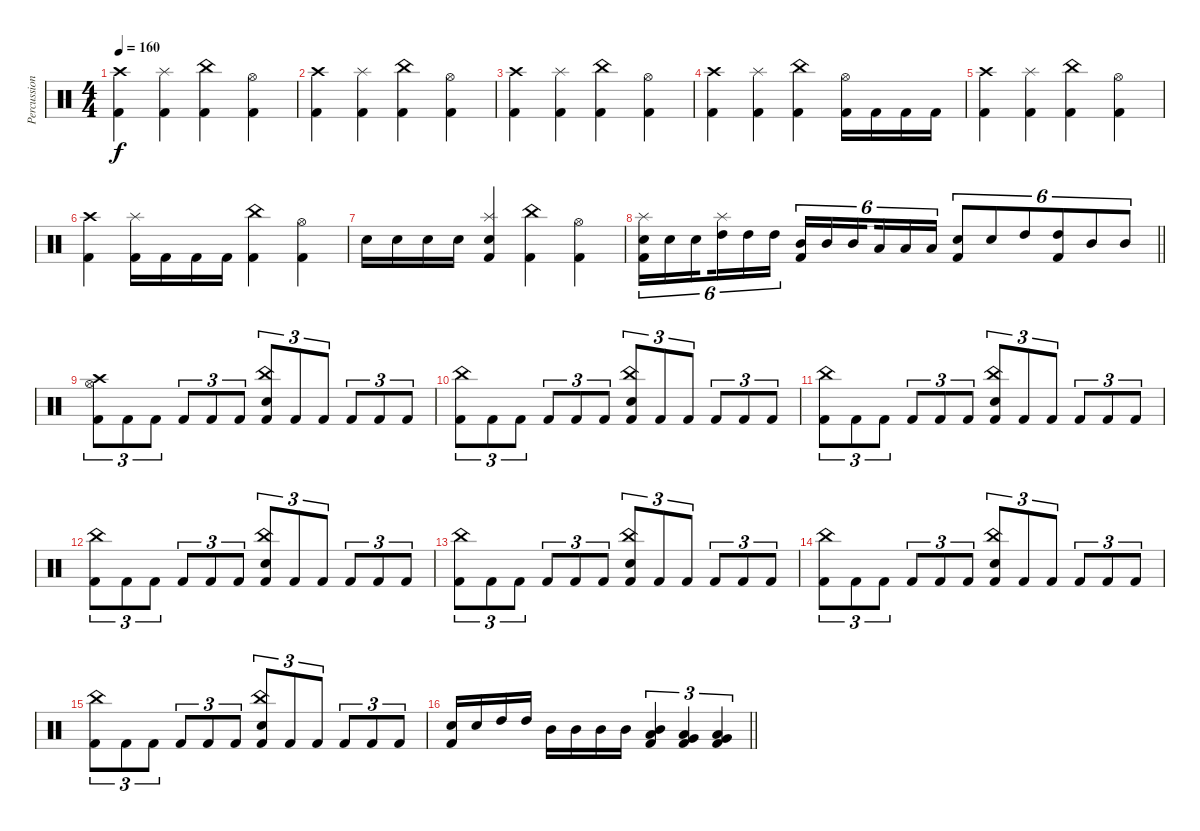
\track ("Percussions" "Percussion") {instrument percussion}
\staff {score}
\articulation defaults
\ts (4 4)
\tempo 160
\clef neutral
\ks c
("Crash high (hit)" "Kick (hit) 2").4{dy f} ("Splash (hit)" "Kick (hit) 2").4 ("China (hit)" "Kick (hit) 2").4 ("Hi-Hat (open)" "Kick (hit) 2").4 |
("Crash high (hit)" "Kick (hit) 2").4 ("Splash (hit)" "Kick (hit) 2").4 ("China (hit)" "Kick (hit) 2").4 ("Hi-Hat (open)" "Kick (hit) 2").4 |
("Crash high (hit)" "Kick (hit) 2").4 ("Splash (hit)" "Kick (hit) 2").4 ("China (hit)" "Kick (hit) 2").4 ("Hi-Hat (open)" "Kick (hit) 2").4 |
("Crash high (hit)" "Kick (hit) 2").4 ("Splash (hit)" "Kick (hit) 2").4 ("China (hit)" "Kick (hit) 2").4 ("Hi-Hat (open)" "Kick (hit) 2").16 "Kick (hit) 2".16 "Kick (hit) 2".16 "Kick (hit) 2".16 |
("Crash high (hit)" "Kick (hit) 2").4 ("Splash (hit)" "Kick (hit) 2").4 ("China (hit)" "Kick (hit) 2").4 ("Hi-Hat (open)" "Kick (hit) 2").4 |
("Crash high (hit)" "Kick (hit) 2").4 ("Splash (hit)" "Kick (hit) 2").16 "Kick (hit) 2".16 "Kick (hit) 2".16 "Kick (hit) 2".16 ("China (hit)" "Kick (hit) 2").4 ("Hi-Hat (open)" "Kick (hit) 2").4 |
"Electric Snare (hit)".16 "Electric Snare (hit)".16 "Electric Snare (hit)".16 "Electric Snare (hit)".16 ("Splash (hit)" "Electric Snare (hit)" "Kick (hit) 2").4 ("China (hit)" "Kick (hit) 2").4 ("Hi-Hat (open)" "Kick (hit) 2").4 |
\barLineRight lightlight
("Splash (hit)" "Electric Snare (hit)" "Kick (hit) 2").16{tu (6 4)} "Electric Snare (hit)".16{tu (6 4)} "Electric Snare (hit)".16{tu (6 4) beam splitsecondary} ("Splash (hit)" "High Tom (hit)").16{tu (6 4)} "High Tom (hit)".16{tu (6 4)} "High Tom (hit)".16{tu (6 4)} ("Mid Tom (hit)" "Kick (hit) 2").16{tu (6 4)} "Mid Tom (hit)".16{tu (6 4)} "Mid Tom (hit)".16{tu (6 4) beam splitsecondary} "Low Tom (hit)".16{tu (6 4)} "Low Tom (hit)".16{tu (6 4)} "Low Tom (hit)".16{tu (6 4)} ("Electric Snare (hit)" "Kick (hit) 2").8{tu (6 4)} "Electric Snare (hit)".8{tu (6 4)} "High Tom (hit)".8{tu (6 4)} ("High Tom (hit)" "Kick (hit) 2").8{tu (6 4)} "Mid Tom (hit)".8{tu (6 4)} "Mid Tom (hit)".8{tu (6 4)} |
("Hi-Hat (open)" "Crash high (hit)" "Kick (hit) 2").8{tu (3 2)} "Kick (hit) 2".8{tu (3 2)} "Kick (hit) 2".8{tu (3 2)} "Kick (hit) 2".8{tu (3 2)} "Kick (hit) 2".8{tu (3 2)} "Kick (hit) 2".8{tu (3 2)} ("China (hit)" "Electric Snare (hit)" "Kick (hit) 2").8{tu (3 2)} "Kick (hit) 2".8{tu (3 2)} "Kick (hit) 2".8{tu (3 2)} "Kick (hit) 2".8{tu (3 2)} "Kick (hit) 2".8{tu (3 2)} "Kick (hit) 2".8{tu (3 2)} |
("China (hit)" "Kick (hit) 2").8{tu (3 2)} "Kick (hit) 2".8{tu (3 2)} "Kick (hit) 2".8{tu (3 2)} "Kick (hit) 2".8{tu (3 2)} "Kick (hit) 2".8{tu (3 2)} "Kick (hit) 2".8{tu (3 2)} ("China (hit)" "Electric Snare (hit)" "Kick (hit) 2").8{tu (3 2)} "Kick (hit) 2".8{tu (3 2)} "Kick (hit) 2".8{tu (3 2)} "Kick (hit) 2".8{tu (3 2)} "Kick (hit) 2".8{tu (3 2)} "Kick (hit) 2".8{tu (3 2)} |
("China (hit)" "Kick (hit) 2").8{tu (3 2)} "Kick (hit) 2".8{tu (3 2)} "Kick (hit) 2".8{tu (3 2)} "Kick (hit) 2".8{tu (3 2)} "Kick (hit) 2".8{tu (3 2)} "Kick (hit) 2".8{tu (3 2)} ("China (hit)" "Electric Snare (hit)" "Kick (hit) 2").8{tu (3 2)} "Kick (hit) 2".8{tu (3 2)} "Kick (hit) 2".8{tu (3 2)} "Kick (hit) 2".8{tu (3 2)} "Kick (hit) 2".8{tu (3 2)} "Kick (hit) 2".8{tu (3 2)} |
("China (hit)" "Kick (hit) 2").8{tu (3 2)} "Kick (hit) 2".8{tu (3 2)} "Kick (hit) 2".8{tu (3 2)} "Kick (hit) 2".8{tu (3 2)} "Kick (hit) 2".8{tu (3 2)} "Kick (hit) 2".8{tu (3 2)} ("China (hit)" "Electric Snare (hit)" "Kick (hit) 2").8{tu (3 2)} "Kick (hit) 2".8{tu (3 2)} "Kick (hit) 2".8{tu (3 2)} "Kick (hit) 2".8{tu (3 2)} "Kick (hit) 2".8{tu (3 2)} "Kick (hit) 2".8{tu (3 2)} |
("China (hit)" "Kick (hit) 2").8{tu (3 2)} "Kick (hit) 2".8{tu (3 2)} "Kick (hit) 2".8{tu (3 2)} "Kick (hit) 2".8{tu (3 2)} "Kick (hit) 2".8{tu (3 2)} "Kick (hit) 2".8{tu (3 2)} ("China (hit)" "Electric Snare (hit)" "Kick (hit) 2").8{tu (3 2)} "Kick (hit) 2".8{tu (3 2)} "Kick (hit) 2".8{tu (3 2)} "Kick (hit) 2".8{tu (3 2)} "Kick (hit) 2".8{tu (3 2)} "Kick (hit) 2".8{tu (3 2)} |
("China (hit)" "Kick (hit) 2").8{tu (3 2)} "Kick (hit) 2".8{tu (3 2)} "Kick (hit) 2".8{tu (3 2)} "Kick (hit) 2".8{tu (3 2)} "Kick (hit) 2".8{tu (3 2)} "Kick (hit) 2".8{tu (3 2)} ("China (hit)" "Electric Snare (hit)" "Kick (hit) 2").8{tu (3 2)} "Kick (hit) 2".8{tu (3 2)} "Kick (hit) 2".8{tu (3 2)} "Kick (hit) 2".8{tu (3 2)} "Kick (hit) 2".8{tu (3 2)} "Kick (hit) 2".8{tu (3 2)} |
("China (hit)" "Kick (hit) 2").8{tu (3 2)} "Kick (hit) 2".8{tu (3 2)} "Kick (hit) 2".8{tu (3 2)} "Kick (hit) 2".8{tu (3 2)} "Kick (hit) 2".8{tu (3 2)} "Kick (hit) 2".8{tu (3 2)} ("China (hit)" "Electric Snare (hit)" "Kick (hit) 2").8{tu (3 2)} "Kick (hit) 2".8{tu (3 2)} "Kick (hit) 2".8{tu (3 2)} "Kick (hit) 2".8{tu (3 2)} "Kick (hit) 2".8{tu (3 2)} "Kick (hit) 2".8{tu (3 2)} |
\barLineRight lightlight
("Electric Snare (hit)" "Kick (hit) 2").16 "Electric Snare (hit)".16 "High Tom (hit)".16 "High Tom (hit)".16 "Mid Tom (hit)".16 "Mid Tom (hit)".16 "Mid Tom (hit)".16 "Mid Tom (hit)".16 ("Low Tom (hit)" "Mid Tom (hit)" "Kick (hit) 2").4{tu (3 2)} ("Very Low Tom (hit)" "Low Tom (hit)" "Kick (hit) 2").4{tu (3 2)} ("Low Floor Tom (hit)" "Very Low Tom (hit)" "Kick (hit) 2").4{tu (3 2)}
